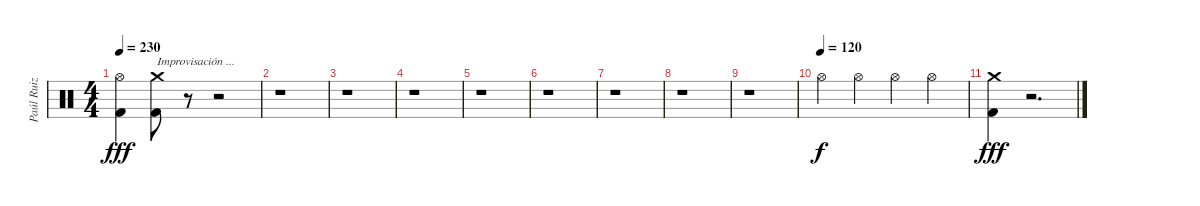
\track ("Paúl Ruiz" "Paúl Ruiz") {instrument percussion}
\staff {score}
\articulation defaults
\ts (4 4)
\tempo 230
\clef neutral
\ks c
("Hi-Hat (open)" "Kick (hit) 2").4{dy fff} ("Crash medium (hit)" "Kick (hit) 2").8{txt "Improvisación ..."} r.8 r.2 |
r.1 |
r.1 |
r.1 |
r.1 |
r.1 |
r.1 |
r.1 |
r.1 |
\tempo (120)
"Hi-Hat (open)".4{dy f} "Hi-Hat (open)".4 "Hi-Hat (open)".4 "Hi-Hat (open)".4 |
("Crash medium (hit)" "Kick (hit) 2").4{dy fff} r.2{d}
